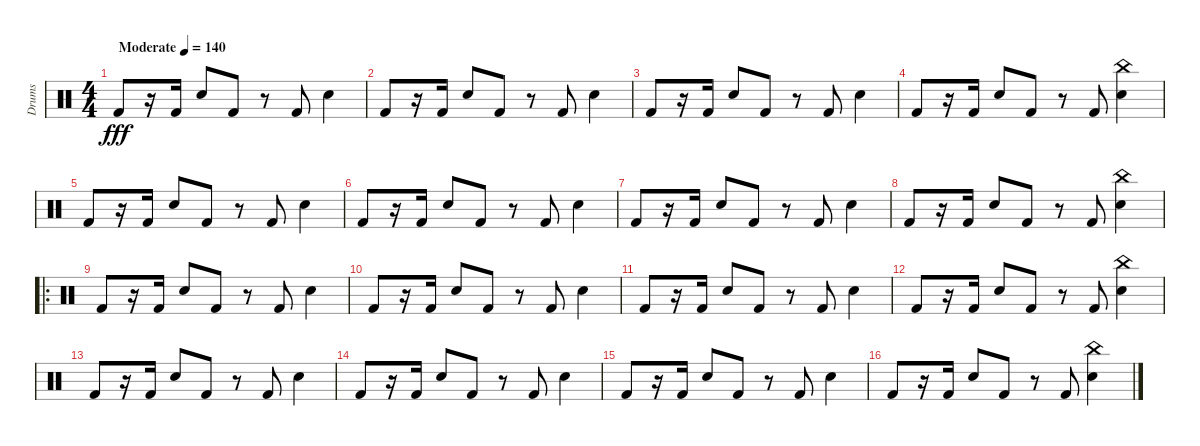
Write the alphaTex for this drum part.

\track ("Drums" "Drums") {instrument percussion}
\staff {score}
\articulation defaults
\ts (4 4)
\tempo (140 "Moderate")
\clef neutral
\ks c "Kick (hit) 2".8{dy fff}
r.16 "Kick (hit) 2".16 "Snare (hit) 2".8 "Kick (hit) 2".8 r.8 "Kick (hit) 2".8 "Snare (hit) 2".4 |
"Kick (hit) 2".8 r.16 "Kick (hit) 2".16 "Snare (hit) 2".8 "Kick (hit) 2".8 r.8 "Kick (hit) 2".8 "Snare (hit) 2".4 |
"Kick (hit) 2".8 r.16 "Kick (hit) 2".16 "Snare (hit) 2".8 "Kick (hit) 2".8 r.8 "Kick (hit) 2".8 "Snare (hit) 2".4 |
"Kick (hit) 2".8 r.16 "Kick (hit) 2".16 "Snare (hit) 2".8 "Kick (hit) 2".8 r.8 "Kick (hit) 2".8 ("China (hit)" "Snare (hit) 2").4 |
"Kick (hit) 2".8 r.16 "Kick (hit) 2".16 "Snare (hit) 2".8 "Kick (hit) 2".8 r.8 "Kick (hit) 2".8 "Snare (hit) 2".4 |
"Kick (hit) 2".8 r.16 "Kick (hit) 2".16 "Snare (hit) 2".8 "Kick (hit) 2".8 r.8 "Kick (hit) 2".8 "Snare (hit) 2".4 |
"Kick (hit) 2".8 r.16 "Kick (hit) 2".16 "Snare (hit) 2".8 "Kick (hit) 2".8 r.8 "Kick (hit) 2".8 "Snare (hit) 2".4 |
"Kick (hit) 2".8 r.16 "Kick (hit) 2".16 "Snare (hit) 2".8 "Kick (hit) 2".8 r.8 "Kick (hit) 2".8 ("China (hit)" "Snare (hit) 2").4 |
\ro "Kick (hit) 2".8
r.16 "Kick (hit) 2".16 "Snare (hit) 2".8 "Kick (hit) 2".8 r.8 "Kick (hit) 2".8 "Snare (hit) 2".4 |
"Kick (hit) 2".8 r.16 "Kick (hit) 2".16 "Snare (hit) 2".8 "Kick (hit) 2".8 r.8 "Kick (hit) 2".8 "Snare (hit) 2".4 |
"Kick (hit) 2".8 r.16 "Kick (hit) 2".16 "Snare (hit) 2".8 "Kick (hit) 2".8 r.8 "Kick (hit) 2".8 "Snare (hit) 2".4 |
"Kick (hit) 2".8 r.16 "Kick (hit) 2".16 "Snare (hit) 2".8 "Kick (hit) 2".8 r.8 "Kick (hit) 2".8 ("China (hit)" "Snare (hit) 2").4 |
"Kick (hit) 2".8 r.16 "Kick (hit) 2".16 "Snare (hit) 2".8 "Kick (hit) 2".8 r.8 "Kick (hit) 2".8 "Snare (hit) 2".4 |
"Kick (hit) 2".8 r.16 "Kick (hit) 2".16 "Snare (hit) 2".8 "Kick (hit) 2".8 r.8 "Kick (hit) 2".8 "Snare (hit) 2".4 |
"Kick (hit) 2".8 r.16 "Kick (hit) 2".16 "Snare (hit) 2".8 "Kick (hit) 2".8 r.8 "Kick (hit) 2".8 "Snare (hit) 2".4 |
"Kick (hit) 2".8 r.16 "Kick (hit) 2".16 "Snare (hit) 2".8 "Kick (hit) 2".8 r.8 "Kick (hit) 2".8 ("China (hit)" "Snare (hit) 2").4
